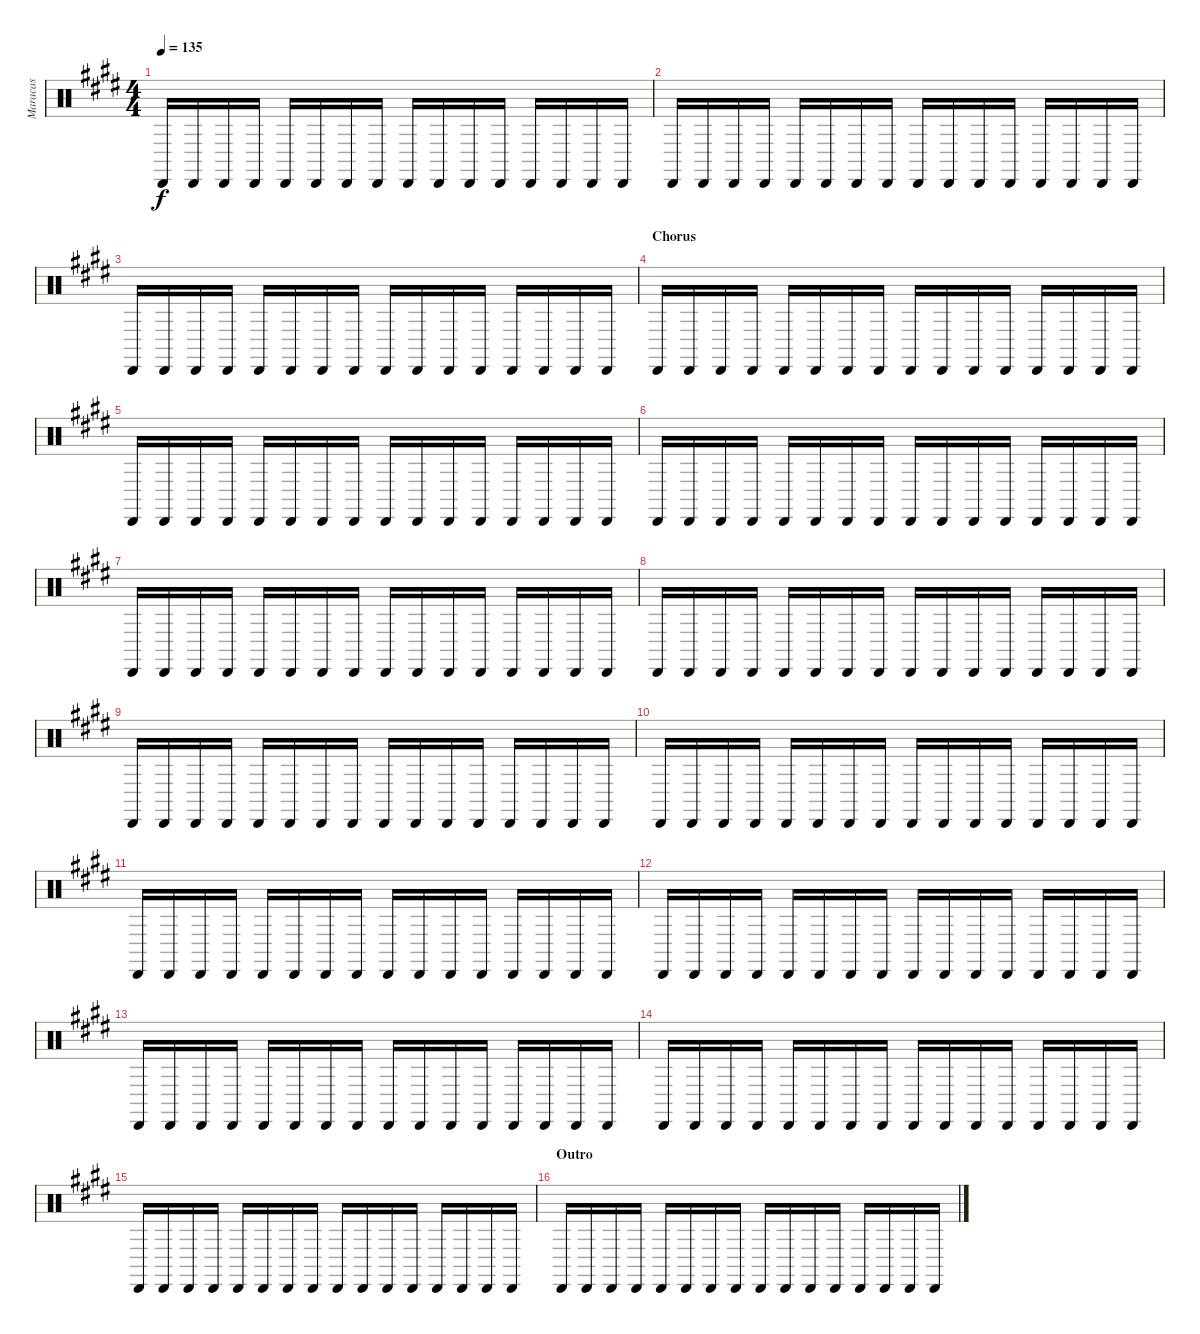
\track ("Maracas" "Maracas") {instrument percussion}
\staff {score}
\articulation defaults
\ts (4 4)
\tempo 135
\clef neutral
\ks e "Cabasa (hit)".16{dy f} "Cabasa (hit)".16 "Cabasa (hit)".16 "Cabasa (hit)".16 "Cabasa (hit)".16 "Cabasa (hit)".16 "Cabasa (hit)".16 "Cabasa (hit)".16 "Cabasa (hit)".16 "Cabasa (hit)".16 "Cabasa (hit)".16 "Cabasa (hit)".16 "Cabasa (hit)".16 "Cabasa (hit)".16 "Cabasa (hit)".16 "Cabasa (hit)".16
|
"Cabasa (hit)".16 "Cabasa (hit)".16 "Cabasa (hit)".16 "Cabasa (hit)".16 "Cabasa (hit)".16 "Cabasa (hit)".16 "Cabasa (hit)".16 "Cabasa (hit)".16 "Cabasa (hit)".16 "Cabasa (hit)".16 "Cabasa (hit)".16 "Cabasa (hit)".16 "Cabasa (hit)".16 "Cabasa (hit)".16 "Cabasa (hit)".16 "Cabasa (hit)".16 |
"Cabasa (hit)".16 "Cabasa (hit)".16 "Cabasa (hit)".16 "Cabasa (hit)".16 "Cabasa (hit)".16 "Cabasa (hit)".16 "Cabasa (hit)".16 "Cabasa (hit)".16 "Cabasa (hit)".16 "Cabasa (hit)".16 "Cabasa (hit)".16 "Cabasa (hit)".16 "Cabasa (hit)".16 "Cabasa (hit)".16 "Cabasa (hit)".16 "Cabasa (hit)".16 |
\section ("" "Chorus")
"Cabasa (hit)".16 "Cabasa (hit)".16 "Cabasa (hit)".16 "Cabasa (hit)".16 "Cabasa (hit)".16 "Cabasa (hit)".16 "Cabasa (hit)".16 "Cabasa (hit)".16 "Cabasa (hit)".16 "Cabasa (hit)".16 "Cabasa (hit)".16 "Cabasa (hit)".16 "Cabasa (hit)".16 "Cabasa (hit)".16 "Cabasa (hit)".16 "Cabasa (hit)".16 |
"Cabasa (hit)".16 "Cabasa (hit)".16 "Cabasa (hit)".16 "Cabasa (hit)".16 "Cabasa (hit)".16 "Cabasa (hit)".16 "Cabasa (hit)".16 "Cabasa (hit)".16 "Cabasa (hit)".16 "Cabasa (hit)".16 "Cabasa (hit)".16 "Cabasa (hit)".16 "Cabasa (hit)".16 "Cabasa (hit)".16 "Cabasa (hit)".16 "Cabasa (hit)".16 |
"Cabasa (hit)".16 "Cabasa (hit)".16 "Cabasa (hit)".16 "Cabasa (hit)".16 "Cabasa (hit)".16 "Cabasa (hit)".16 "Cabasa (hit)".16 "Cabasa (hit)".16 "Cabasa (hit)".16 "Cabasa (hit)".16 "Cabasa (hit)".16 "Cabasa (hit)".16 "Cabasa (hit)".16 "Cabasa (hit)".16 "Cabasa (hit)".16 "Cabasa (hit)".16 |
"Cabasa (hit)".16 "Cabasa (hit)".16 "Cabasa (hit)".16 "Cabasa (hit)".16 "Cabasa (hit)".16 "Cabasa (hit)".16 "Cabasa (hit)".16 "Cabasa (hit)".16 "Cabasa (hit)".16 "Cabasa (hit)".16 "Cabasa (hit)".16 "Cabasa (hit)".16 "Cabasa (hit)".16 "Cabasa (hit)".16 "Cabasa (hit)".16 "Cabasa (hit)".16 |
"Cabasa (hit)".16 "Cabasa (hit)".16 "Cabasa (hit)".16 "Cabasa (hit)".16 "Cabasa (hit)".16 "Cabasa (hit)".16 "Cabasa (hit)".16 "Cabasa (hit)".16 "Cabasa (hit)".16 "Cabasa (hit)".16 "Cabasa (hit)".16 "Cabasa (hit)".16 "Cabasa (hit)".16 "Cabasa (hit)".16 "Cabasa (hit)".16 "Cabasa (hit)".16 |
"Cabasa (hit)".16 "Cabasa (hit)".16 "Cabasa (hit)".16 "Cabasa (hit)".16 "Cabasa (hit)".16 "Cabasa (hit)".16 "Cabasa (hit)".16 "Cabasa (hit)".16 "Cabasa (hit)".16 "Cabasa (hit)".16 "Cabasa (hit)".16 "Cabasa (hit)".16 "Cabasa (hit)".16 "Cabasa (hit)".16 "Cabasa (hit)".16 "Cabasa (hit)".16 |
"Cabasa (hit)".16 "Cabasa (hit)".16 "Cabasa (hit)".16 "Cabasa (hit)".16 "Cabasa (hit)".16 "Cabasa (hit)".16 "Cabasa (hit)".16 "Cabasa (hit)".16 "Cabasa (hit)".16 "Cabasa (hit)".16 "Cabasa (hit)".16 "Cabasa (hit)".16 "Cabasa (hit)".16 "Cabasa (hit)".16 "Cabasa (hit)".16 "Cabasa (hit)".16 |
"Cabasa (hit)".16 "Cabasa (hit)".16 "Cabasa (hit)".16 "Cabasa (hit)".16 "Cabasa (hit)".16 "Cabasa (hit)".16 "Cabasa (hit)".16 "Cabasa (hit)".16 "Cabasa (hit)".16 "Cabasa (hit)".16 "Cabasa (hit)".16 "Cabasa (hit)".16 "Cabasa (hit)".16 "Cabasa (hit)".16 "Cabasa (hit)".16 "Cabasa (hit)".16 |
"Cabasa (hit)".16 "Cabasa (hit)".16 "Cabasa (hit)".16 "Cabasa (hit)".16 "Cabasa (hit)".16 "Cabasa (hit)".16 "Cabasa (hit)".16 "Cabasa (hit)".16 "Cabasa (hit)".16 "Cabasa (hit)".16 "Cabasa (hit)".16 "Cabasa (hit)".16 "Cabasa (hit)".16 "Cabasa (hit)".16 "Cabasa (hit)".16 "Cabasa (hit)".16 |
"Cabasa (hit)".16 "Cabasa (hit)".16 "Cabasa (hit)".16 "Cabasa (hit)".16 "Cabasa (hit)".16 "Cabasa (hit)".16 "Cabasa (hit)".16 "Cabasa (hit)".16 "Cabasa (hit)".16 "Cabasa (hit)".16 "Cabasa (hit)".16 "Cabasa (hit)".16 "Cabasa (hit)".16 "Cabasa (hit)".16 "Cabasa (hit)".16 "Cabasa (hit)".16 |
"Cabasa (hit)".16 "Cabasa (hit)".16 "Cabasa (hit)".16 "Cabasa (hit)".16 "Cabasa (hit)".16 "Cabasa (hit)".16 "Cabasa (hit)".16 "Cabasa (hit)".16 "Cabasa (hit)".16 "Cabasa (hit)".16 "Cabasa (hit)".16 "Cabasa (hit)".16 "Cabasa (hit)".16 "Cabasa (hit)".16 "Cabasa (hit)".16 "Cabasa (hit)".16 |
"Cabasa (hit)".16 "Cabasa (hit)".16 "Cabasa (hit)".16 "Cabasa (hit)".16 "Cabasa (hit)".16 "Cabasa (hit)".16 "Cabasa (hit)".16 "Cabasa (hit)".16 "Cabasa (hit)".16 "Cabasa (hit)".16 "Cabasa (hit)".16 "Cabasa (hit)".16 "Cabasa (hit)".16 "Cabasa (hit)".16 "Cabasa (hit)".16 "Cabasa (hit)".16 |
\section ("" "Outro")
"Cabasa (hit)".16 "Cabasa (hit)".16 "Cabasa (hit)".16 "Cabasa (hit)".16 "Cabasa (hit)".16 "Cabasa (hit)".16 "Cabasa (hit)".16 "Cabasa (hit)".16 "Cabasa (hit)".16 "Cabasa (hit)".16 "Cabasa (hit)".16 "Cabasa (hit)".16 "Cabasa (hit)".16 "Cabasa (hit)".16 "Cabasa (hit)".16 "Cabasa (hit)".16
